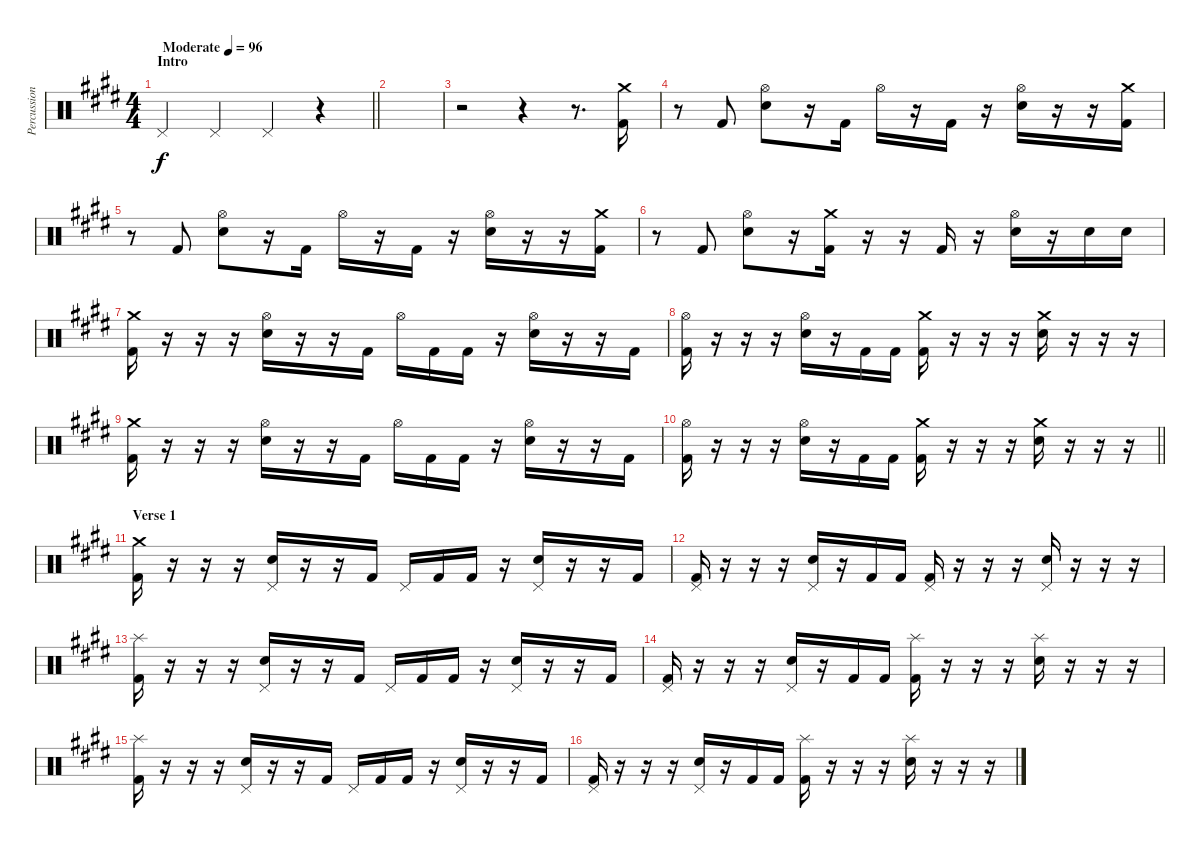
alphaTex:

\track ("Percussioni" "Percussion") {instrument percussion}
\staff {score}
\articulation defaults
\ts (4 4)
\section ("" "Intro")
\tempo (96 "Moderate")
\clef neutral
\barLineRight lightlight
\ks e "Pedal Hi-Hat (hit)".4{dy f} "Pedal Hi-Hat (hit)".4 "Pedal Hi-Hat (hit)".4
r.4 |
\ks c#minor
|
r.2 r.4 r.8{d} ("Kick (hit) 2" "Crash medium (hit)").16 |
r.8 "Kick (hit) 2".8 ("Electric Snare (hit)" "Hi-Hat (open)").8 r.16 "Kick (hit) 2".16 "Hi-Hat (open)".16 r.16 "Kick (hit) 2".16 r.16 ("Electric Snare (hit)" "Hi-Hat (open)").16 r.16 r.16 ("Kick (hit) 2" "Crash medium (hit)").16 |
r.8 "Kick (hit) 2".8 ("Electric Snare (hit)" "Hi-Hat (open)").8 r.16 "Kick (hit) 2".16 "Hi-Hat (open)".16 r.16 "Kick (hit) 2".16 r.16 ("Electric Snare (hit)" "Hi-Hat (open)").16 r.16 r.16 ("Kick (hit) 2" "Crash medium (hit)").16 |
r.8 "Kick (hit) 2".8 ("Electric Snare (hit)" "Hi-Hat (open)").8 r.16 ("Kick (hit) 2" "Crash medium (hit)").16 r.16 r.16 "Kick (hit) 2".16 r.16 ("Electric Snare (hit)" "Hi-Hat (open)").16 r.16 "Electric Snare (hit)".16 "Electric Snare (hit)".16 |
("Kick (hit) 2" "Crash medium (hit)").16 r.16 r.16 r.16 ("Electric Snare (hit)" "Hi-Hat (open)").16 r.16 r.16 "Kick (hit) 2".16 "Hi-Hat (open)".16 "Kick (hit) 2".16 "Kick (hit) 2".16 r.16 ("Electric Snare (hit)" "Hi-Hat (open)").16 r.16 r.16 "Kick (hit) 2".16 |
("Kick (hit) 2" "Hi-Hat (open)").16 r.16 r.16 r.16 ("Electric Snare (hit)" "Hi-Hat (open)").16 r.16 "Kick (hit) 2".16 "Kick (hit) 2".16 ("Kick (hit) 2" "Crash medium (hit)").16 r.16 r.16 r.16 ("Electric Snare (hit)" "Crash medium (hit)").16 r.16 r.16 r.16 |
("Kick (hit) 2" "Crash medium (hit)").16 r.16 r.16 r.16 ("Electric Snare (hit)" "Hi-Hat (open)").16 r.16 r.16 "Kick (hit) 2".16 "Hi-Hat (open)".16 "Kick (hit) 2".16 "Kick (hit) 2".16 r.16 ("Electric Snare (hit)" "Hi-Hat (open)").16 r.16 r.16 "Kick (hit) 2".16 |
\barLineRight lightlight
("Kick (hit) 2" "Hi-Hat (open)").16 r.16 r.16 r.16 ("Electric Snare (hit)" "Hi-Hat (open)").16 r.16 "Kick (hit) 2".16 "Kick (hit) 2".16 ("Kick (hit) 2" "Crash medium (hit)").16 r.16 r.16 r.16 ("Electric Snare (hit)" "Crash medium (hit)").16 r.16 r.16 r.16 |
\section ("" "Verse 1")
("Kick (hit) 2" "Crash medium (hit)").16 r.16 r.16 r.16 ("Electric Snare (hit)" "Pedal Hi-Hat (hit)").16 r.16 r.16 "Kick (hit) 2".16 "Pedal Hi-Hat (hit)".16 "Kick (hit) 2".16 "Kick (hit) 2".16 r.16 ("Electric Snare (hit)" "Pedal Hi-Hat (hit)").16 r.16 r.16 "Kick (hit) 2".16 |
("Kick (hit) 2" "Pedal Hi-Hat (hit)").16 r.16 r.16 r.16 ("Electric Snare (hit)" "Pedal Hi-Hat (hit)").16 r.16 "Kick (hit) 2".16 "Kick (hit) 2".16 ("Kick (hit) 2" "Pedal Hi-Hat (hit)").16 r.16 r.16 r.16 ("Electric Snare (hit)" "Pedal Hi-Hat (hit)").16 r.16 r.16 r.16 |
("Kick (hit) 2" "Splash (hit)").16 r.16 r.16 r.16 ("Electric Snare (hit)" "Pedal Hi-Hat (hit)").16 r.16 r.16 "Kick (hit) 2".16 "Pedal Hi-Hat (hit)".16 "Kick (hit) 2".16 "Kick (hit) 2".16 r.16 ("Electric Snare (hit)" "Pedal Hi-Hat (hit)").16 r.16 r.16 "Kick (hit) 2".16 |
("Kick (hit) 2" "Pedal Hi-Hat (hit)").16 r.16 r.16 r.16 ("Electric Snare (hit)" "Pedal Hi-Hat (hit)").16 r.16 "Kick (hit) 2".16 "Kick (hit) 2".16 ("Kick (hit) 2" "Splash (hit)").16 r.16 r.16 r.16 ("Electric Snare (hit)" "Splash (hit)").16 r.16 r.16 r.16 |
("Kick (hit) 2" "Splash (hit)").16 r.16 r.16 r.16 ("Electric Snare (hit)" "Pedal Hi-Hat (hit)").16 r.16 r.16 "Kick (hit) 2".16 "Pedal Hi-Hat (hit)".16 "Kick (hit) 2".16 "Kick (hit) 2".16 r.16 ("Electric Snare (hit)" "Pedal Hi-Hat (hit)").16 r.16 r.16 "Kick (hit) 2".16 |
("Kick (hit) 2" "Pedal Hi-Hat (hit)").16 r.16 r.16 r.16 ("Electric Snare (hit)" "Pedal Hi-Hat (hit)").16 r.16 "Kick (hit) 2".16 "Kick (hit) 2".16 ("Kick (hit) 2" "Splash (hit)").16 r.16 r.16 r.16 ("Electric Snare (hit)" "Splash (hit)").16 r.16 r.16 r.16
